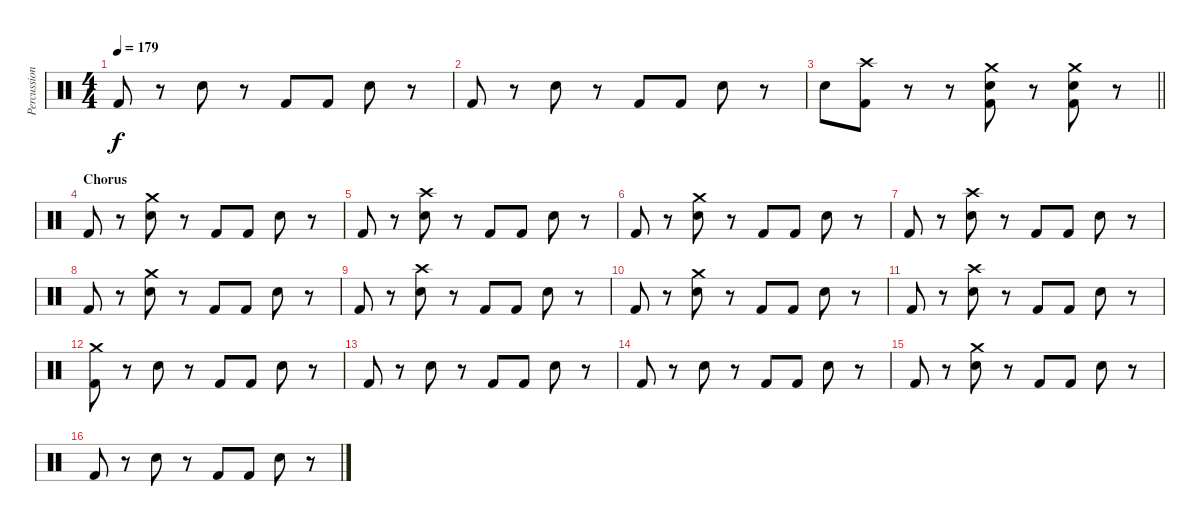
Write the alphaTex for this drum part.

\track ("Percussion" "Percussion") {instrument percussion}
\staff {score}
\articulation defaults
\ts (4 4)
\tempo 179
\clef neutral
\ks c "Kick (hit) 2".8{dy f}
r.8 "Snare (hit) 2".8 r.8 "Kick (hit) 2".8 "Kick (hit) 2".8 "Snare (hit) 2".8 r.8 |
"Kick (hit) 2".8 r.8 "Snare (hit) 2".8 r.8 "Kick (hit) 2".8 "Kick (hit) 2".8 "Snare (hit) 2".8 r.8 |
\barLineRight lightlight "Snare (hit) 2".8
("Crash high (hit)" "Kick (hit) 2").8 r.8 r.8 ("Crash medium (hit)" "Snare (hit) 2" "Kick (hit) 2").8 r.8 ("Crash medium (hit)" "Snare (hit) 2" "Kick (hit) 2").8 r.8 |
\section ("" "Chorus")
"Kick (hit) 2".8 r.8 ("Crash medium (hit)" "Snare (hit) 2").8 r.8 "Kick (hit) 2".8 "Kick (hit) 2".8 "Snare (hit) 2".8 r.8 |
"Kick (hit) 2".8 r.8 ("Crash high (hit)" "Snare (hit) 2").8 r.8 "Kick (hit) 2".8 "Kick (hit) 2".8 "Snare (hit) 2".8 r.8 |
"Kick (hit) 2".8 r.8 ("Crash medium (hit)" "Snare (hit) 2").8 r.8 "Kick (hit) 2".8 "Kick (hit) 2".8 "Snare (hit) 2".8 r.8 |
"Kick (hit) 2".8 r.8 ("Crash high (hit)" "Snare (hit) 2").8 r.8 "Kick (hit) 2".8 "Kick (hit) 2".8 "Snare (hit) 2".8 r.8 |
"Kick (hit) 2".8 r.8 ("Crash medium (hit)" "Snare (hit) 2").8 r.8 "Kick (hit) 2".8 "Kick (hit) 2".8 "Snare (hit) 2".8 r.8 |
"Kick (hit) 2".8 r.8 ("Crash high (hit)" "Snare (hit) 2").8 r.8 "Kick (hit) 2".8 "Kick (hit) 2".8 "Snare (hit) 2".8 r.8 |
"Kick (hit) 2".8 r.8 ("Crash medium (hit)" "Snare (hit) 2").8 r.8 "Kick (hit) 2".8 "Kick (hit) 2".8 "Snare (hit) 2".8 r.8 |
"Kick (hit) 2".8 r.8 ("Crash high (hit)" "Snare (hit) 2").8 r.8 "Kick (hit) 2".8 "Kick (hit) 2".8 "Snare (hit) 2".8 r.8 |
("Crash medium (hit)" "Kick (hit) 2").8 r.8 "Snare (hit) 2".8 r.8 "Kick (hit) 2".8 "Kick (hit) 2".8 "Snare (hit) 2".8 r.8 |
"Kick (hit) 2".8 r.8 "Snare (hit) 2".8 r.8 "Kick (hit) 2".8 "Kick (hit) 2".8 "Snare (hit) 2".8 r.8 |
"Kick (hit) 2".8 r.8 "Snare (hit) 2".8 r.8 "Kick (hit) 2".8 "Kick (hit) 2".8 "Snare (hit) 2".8 r.8 |
"Kick (hit) 2".8 r.8 ("Crash medium (hit)" "Snare (hit) 2").8 r.8 "Kick (hit) 2".8 "Kick (hit) 2".8 "Snare (hit) 2".8 r.8 |
"Kick (hit) 2".8 r.8 "Snare (hit) 2".8 r.8 "Kick (hit) 2".8 "Kick (hit) 2".8 "Snare (hit) 2".8 r.8
